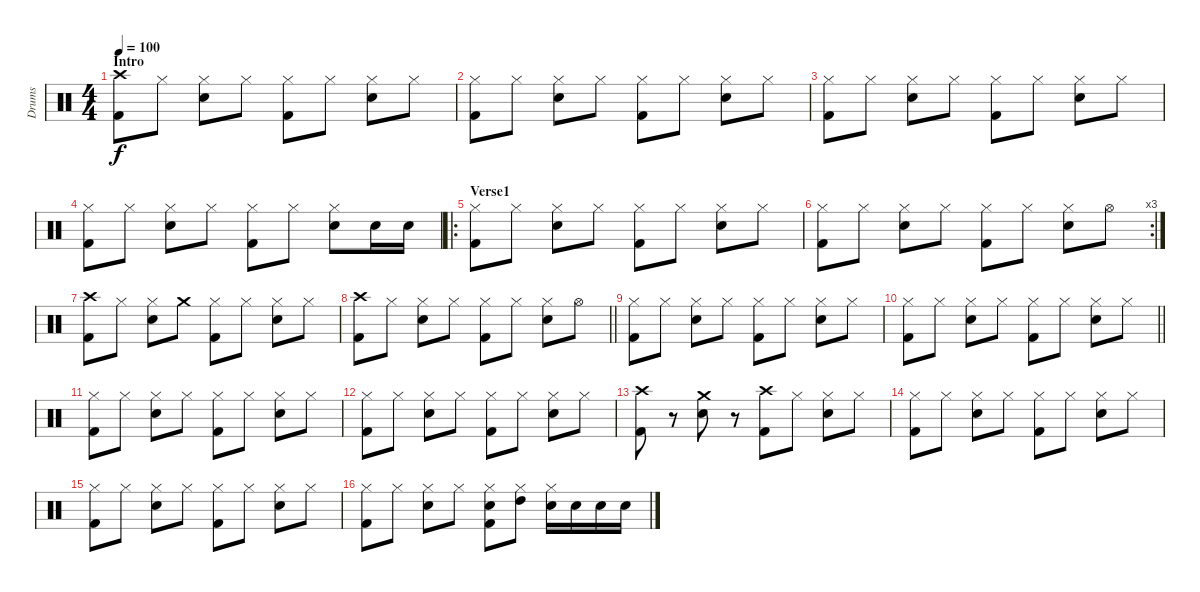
\track ("Drums" "Drums") {instrument percussion}
\staff {score}
\articulation defaults
\ts (4 4)
\section ("" "Intro")
\tempo 100
\clef neutral
\ks c
("Crash high (hit)" "Kick (hit) 2").8{dy f} "Hi-Hat (closed)".8 ("Hi-Hat (closed)" "Snare (hit) 2").8 "Hi-Hat (closed)".8 ("Hi-Hat (closed)" "Kick (hit) 2").8 "Hi-Hat (closed)".8 ("Hi-Hat (closed)" "Snare (hit) 2").8 "Hi-Hat (closed)".8 |
("Hi-Hat (closed)" "Kick (hit) 2").8 "Hi-Hat (closed)".8 ("Hi-Hat (closed)" "Snare (hit) 2").8 "Hi-Hat (closed)".8 ("Hi-Hat (closed)" "Kick (hit) 2").8 "Hi-Hat (closed)".8 ("Hi-Hat (closed)" "Snare (hit) 2").8 "Hi-Hat (closed)".8 |
("Hi-Hat (closed)" "Kick (hit) 2").8 "Hi-Hat (closed)".8 ("Hi-Hat (closed)" "Snare (hit) 2").8 "Hi-Hat (closed)".8 ("Hi-Hat (closed)" "Kick (hit) 2").8 "Hi-Hat (closed)".8 ("Hi-Hat (closed)" "Snare (hit) 2").8 "Hi-Hat (closed)".8 |
("Hi-Hat (closed)" "Kick (hit) 2").8 "Hi-Hat (closed)".8 ("Hi-Hat (closed)" "Snare (hit) 2").8 "Hi-Hat (closed)".8 ("Hi-Hat (closed)" "Kick (hit) 2").8 "Hi-Hat (closed)".8 ("Hi-Hat (closed)" "Snare (hit) 2").8 "Snare (hit) 2".16 "Snare (hit) 2".16 |
\ro
\section ("" "Verse1")
("Hi-Hat (closed)" "Kick (hit) 2").8 "Hi-Hat (closed)".8 ("Hi-Hat (closed)" "Snare (hit) 2").8 "Hi-Hat (closed)".8 ("Hi-Hat (closed)" "Kick (hit) 2").8 "Hi-Hat (closed)".8 ("Hi-Hat (closed)" "Snare (hit) 2").8 "Hi-Hat (closed)".8 |
\rc 3
("Hi-Hat (closed)" "Kick (hit) 2").8 "Hi-Hat (closed)".8 ("Hi-Hat (closed)" "Snare (hit) 2").8 "Hi-Hat (closed)".8 ("Hi-Hat (closed)" "Kick (hit) 2").8 "Hi-Hat (closed)".8 ("Hi-Hat (closed)" "Snare (hit) 2").8 "Hi-Hat (open)".8 |
("Crash high (hit)" "Kick (hit) 2").8 "Hi-Hat (closed)".8 ("Hi-Hat (closed)" "Snare (hit) 2").8 "Crash medium (hit)".8 ("Hi-Hat (closed)" "Kick (hit) 2").8 "Hi-Hat (closed)".8 ("Hi-Hat (closed)" "Snare (hit) 2").8 "Hi-Hat (closed)".8 |
\barLineRight lightlight
("Crash high (hit)" "Kick (hit) 2").8 "Hi-Hat (closed)".8 ("Hi-Hat (closed)" "Snare (hit) 2").8 "Hi-Hat (closed)".8 ("Hi-Hat (closed)" "Kick (hit) 2").8 "Hi-Hat (closed)".8 ("Hi-Hat (closed)" "Snare (hit) 2").8 "Hi-Hat (open)".8 |
("Hi-Hat (closed)" "Kick (hit) 2").8 "Hi-Hat (closed)".8 ("Hi-Hat (closed)" "Snare (hit) 2").8 "Hi-Hat (closed)".8 ("Hi-Hat (closed)" "Kick (hit) 2").8 "Hi-Hat (closed)".8 ("Hi-Hat (closed)" "Snare (hit) 2").8 "Hi-Hat (closed)".8 |
\barLineRight lightlight
("Hi-Hat (closed)" "Kick (hit) 2").8 "Hi-Hat (closed)".8 ("Hi-Hat (closed)" "Snare (hit) 2").8 "Hi-Hat (closed)".8 ("Hi-Hat (closed)" "Kick (hit) 2").8 "Hi-Hat (closed)".8 ("Hi-Hat (closed)" "Snare (hit) 2").8 "Hi-Hat (closed)".8 |
("Hi-Hat (closed)" "Kick (hit) 2").8 "Hi-Hat (closed)".8 ("Hi-Hat (closed)" "Snare (hit) 2").8 "Hi-Hat (closed)".8 ("Hi-Hat (closed)" "Kick (hit) 2").8 "Hi-Hat (closed)".8 ("Hi-Hat (closed)" "Snare (hit) 2").8 "Hi-Hat (closed)".8 |
("Hi-Hat (closed)" "Kick (hit) 2").8 "Hi-Hat (closed)".8 ("Hi-Hat (closed)" "Snare (hit) 2").8 "Hi-Hat (closed)".8 ("Hi-Hat (closed)" "Kick (hit) 2").8 "Hi-Hat (closed)".8 ("Hi-Hat (closed)" "Snare (hit) 2").8 "Hi-Hat (closed)".8 |
("Crash high (hit)" "Kick (hit) 2").8 r.8 ("Crash medium (hit)" "Snare (hit) 2").8 r.8 ("Crash high (hit)" "Kick (hit) 2").8 "Hi-Hat (closed)".8 ("Hi-Hat (closed)" "Snare (hit) 2").8 "Hi-Hat (closed)".8 |
("Hi-Hat (closed)" "Kick (hit) 2").8 "Hi-Hat (closed)".8 ("Hi-Hat (closed)" "Snare (hit) 2").8 "Hi-Hat (closed)".8 ("Hi-Hat (closed)" "Kick (hit) 2").8 "Hi-Hat (closed)".8 ("Hi-Hat (closed)" "Snare (hit) 2").8 "Hi-Hat (closed)".8 |
("Hi-Hat (closed)" "Kick (hit) 2").8 "Hi-Hat (closed)".8 ("Hi-Hat (closed)" "Snare (hit) 2").8 "Hi-Hat (closed)".8 ("Hi-Hat (closed)" "Kick (hit) 2").8 "Hi-Hat (closed)".8 ("Hi-Hat (closed)" "Snare (hit) 2").8 "Hi-Hat (closed)".8 |
("Hi-Hat (closed)" "Kick (hit) 2").8 "Hi-Hat (closed)".8 ("Hi-Hat (closed)" "Snare (hit) 2").8 "Hi-Hat (closed)".8 ("Hi-Hat (closed)" "Snare (hit) 2" "Kick (hit) 2").8 ("Hi-Hat (closed)" "High Tom (hit)").8 ("Hi-Hat (closed)" "Snare (hit) 2").16 "Snare (hit) 2".16 "Snare (hit) 2".16 "Snare (hit) 2".16
